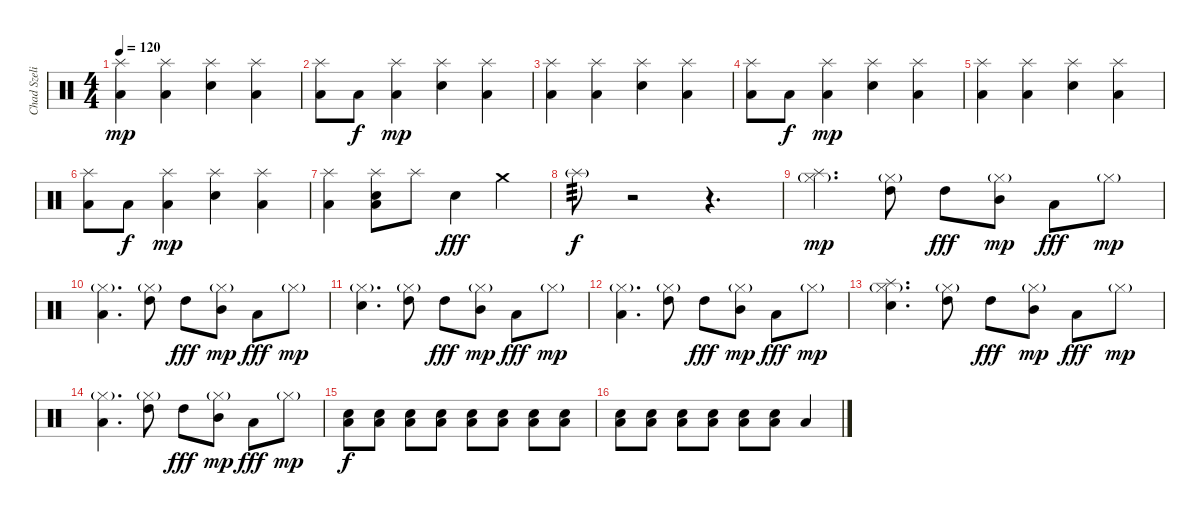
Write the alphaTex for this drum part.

\track ("Chad Szeliga (batteria)" "Chad Szeli") {instrument percussion}
\staff {score}
\articulation defaults
\ts (4 4)
\tempo 120
\clef neutral
\ks c
("Low Floor Tom (hit)" "Splash (hit)").4{dy mp} ("Low Floor Tom (hit)" "Splash (hit)").4 ("Snare (hit) 2" "Splash (hit)").4 ("Low Floor Tom (hit)" "Splash (hit)").4 |
("Low Floor Tom (hit)" "Splash (hit)").8 "Low Floor Tom (hit)".8{dy f} ("Low Floor Tom (hit)" "Splash (hit)").4{dy mp} ("Snare (hit) 2" "Splash (hit)").4 ("Low Floor Tom (hit)" "Splash (hit)").4 |
("Low Floor Tom (hit)" "Splash (hit)").4 ("Low Floor Tom (hit)" "Splash (hit)").4 ("Snare (hit) 2" "Splash (hit)").4 ("Low Floor Tom (hit)" "Splash (hit)").4 |
("Low Floor Tom (hit)" "Splash (hit)").8 "Low Floor Tom (hit)".8{dy f} ("Low Floor Tom (hit)" "Splash (hit)").4{dy mp} ("Snare (hit) 2" "Splash (hit)").4 ("Low Floor Tom (hit)" "Splash (hit)").4 |
("Low Floor Tom (hit)" "Splash (hit)").4 ("Low Floor Tom (hit)" "Splash (hit)").4 ("Snare (hit) 2" "Splash (hit)").4 ("Low Floor Tom (hit)" "Splash (hit)").4 |
("Low Floor Tom (hit)" "Splash (hit)").8 "Low Floor Tom (hit)".8{dy f} ("Low Floor Tom (hit)" "Splash (hit)").4{dy mp} ("Snare (hit) 2" "Splash (hit)").4 ("Low Floor Tom (hit)" "Splash (hit)").4 |
("Low Floor Tom (hit)" "Splash (hit)").4 ("Snare (hit) 2" "Low Floor Tom (hit)" "Splash (hit)").8 "Splash (hit)".8 "Snare (hit) 2".4{dy fff} "Crash medium (hit)".4 |
"Splash (hit)"{g}.8{tp 3 dy f} r.2 r.4{d} |
("Splash (hit)" "Hi-Hat (closed)"{g}).4{d dy mp} ("High Tom (hit)" "Hi-Hat (closed)"{g}).8 "High Tom (hit)".8{dy fff} ("Mid Tom (hit)" "Hi-Hat (closed)"{g}).8{dy mp} "Low Tom (hit)".8{dy fff} "Hi-Hat (closed)"{g}.8{dy mp} |
("Low Floor Tom (hit)" "Hi-Hat (closed)"{g}).4{d} ("High Tom (hit)" "Hi-Hat (closed)"{g}).8 "High Tom (hit)".8{dy fff} ("Mid Tom (hit)" "Hi-Hat (closed)"{g}).8{dy mp} "Low Tom (hit)".8{dy fff} "Hi-Hat (closed)"{g}.8{dy mp} |
("Snare (hit) 2" "Hi-Hat (closed)"{g}).4{d} ("High Tom (hit)" "Hi-Hat (closed)"{g}).8 "High Tom (hit)".8{dy fff} ("Mid Tom (hit)" "Hi-Hat (closed)"{g}).8{dy mp} "Low Tom (hit)".8{dy fff} "Hi-Hat (closed)"{g}.8{dy mp} |
("Low Floor Tom (hit)" "Hi-Hat (closed)"{g}).4{d} ("High Tom (hit)" "Hi-Hat (closed)"{g}).8 "High Tom (hit)".8{dy fff} ("Mid Tom (hit)" "Hi-Hat (closed)"{g}).8{dy mp} "Low Tom (hit)".8{dy fff} "Hi-Hat (closed)"{g}.8{dy mp} |
("Splash (hit)" "Snare (hit) 2" "Hi-Hat (closed)"{g}).4{d} ("High Tom (hit)" "Hi-Hat (closed)"{g}).8 "High Tom (hit)".8{dy fff} ("Mid Tom (hit)" "Hi-Hat (closed)"{g}).8{dy mp} "Low Tom (hit)".8{dy fff} "Hi-Hat (closed)"{g}.8{dy mp} |
("Low Floor Tom (hit)" "Hi-Hat (closed)"{g}).4{d} ("High Tom (hit)" "Hi-Hat (closed)"{g}).8 "High Tom (hit)".8{dy fff} ("Mid Tom (hit)" "Hi-Hat (closed)"{g}).8{dy mp} "Low Tom (hit)".8{dy fff} "Hi-Hat (closed)"{g}.8{dy mp} |
("Snare (hit) 2" "Low Floor Tom (hit)").8{dy f volume 7} ("Snare (hit) 2" "Low Floor Tom (hit)").8{volume 16} ("Snare (hit) 2" "Low Floor Tom (hit)").8 ("Snare (hit) 2" "Low Floor Tom (hit)").8 ("Snare (hit) 2" "Low Floor Tom (hit)").8 ("Snare (hit) 2" "Low Floor Tom (hit)").8 ("Snare (hit) 2" "Low Floor Tom (hit)").8 ("Snare (hit) 2" "Low Floor Tom (hit)").8 |
("Snare (hit) 2" "Low Floor Tom (hit)").8 ("Snare (hit) 2" "Low Floor Tom (hit)").8 ("Snare (hit) 2" "Low Floor Tom (hit)").8 ("Snare (hit) 2" "Low Floor Tom (hit)").8 ("Snare (hit) 2" "Low Floor Tom (hit)").8 ("Snare (hit) 2" "Low Floor Tom (hit)").8 "Low Floor Tom (hit)".4
